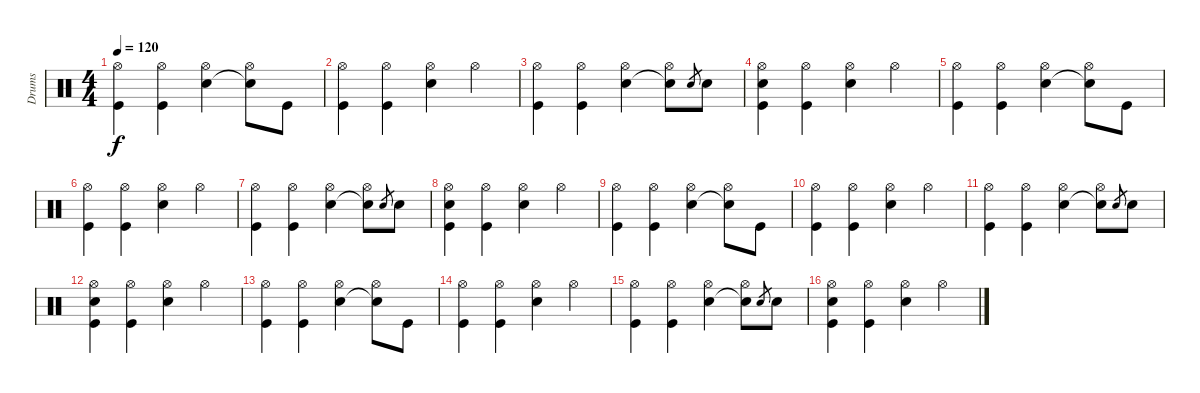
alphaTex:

\track ("Drums" "Drums") {instrument percussion}
\staff {score}
\articulation defaults
\ts (4 4)
\tempo 120
\clef neutral
\ks c
("Hi-Hat (open)" "Kick (hit)").4{dy f} ("Hi-Hat (open)" "Kick (hit)").4 ("Hi-Hat (open)" "Electric Snare (hit)").4 ("Hi-Hat (open)" "Snare (hit)"{t}).8 "Kick (hit)".8 |
("Hi-Hat (open)" "Kick (hit)").4 ("Hi-Hat (open)" "Kick (hit)").4 ("Hi-Hat (open)" "Electric Snare (hit)").4 "Hi-Hat (open)".4 |
("Hi-Hat (open)" "Kick (hit)").4 ("Hi-Hat (open)" "Kick (hit)").4 ("Hi-Hat (open)" "Electric Snare (hit)").4 ("Hi-Hat (open)" "Snare (hit)"{t}).8 "Snare (hit) 2".8{gr} "Snare (hit) 2".8 |
("Hi-Hat (open)" "Kick (hit)" "Snare (hit) 2").4 ("Hi-Hat (open)" "Kick (hit)").4 ("Hi-Hat (open)" "Electric Snare (hit)").4 "Hi-Hat (open)".4 |
("Hi-Hat (open)" "Kick (hit)").4 ("Hi-Hat (open)" "Kick (hit)").4 ("Hi-Hat (open)" "Electric Snare (hit)").4 ("Hi-Hat (open)" "Snare (hit)"{t}).8 "Kick (hit)".8 |
("Hi-Hat (open)" "Kick (hit)").4 ("Hi-Hat (open)" "Kick (hit)").4 ("Hi-Hat (open)" "Electric Snare (hit)").4 "Hi-Hat (open)".4 |
("Hi-Hat (open)" "Kick (hit)").4 ("Hi-Hat (open)" "Kick (hit)").4 ("Hi-Hat (open)" "Electric Snare (hit)").4 ("Hi-Hat (open)" "Snare (hit)"{t}).8 "Snare (hit) 2".8{gr} "Snare (hit) 2".8 |
("Hi-Hat (open)" "Kick (hit)" "Snare (hit) 2").4 ("Hi-Hat (open)" "Kick (hit)").4 ("Hi-Hat (open)" "Electric Snare (hit)").4 "Hi-Hat (open)".4 |
("Hi-Hat (open)" "Kick (hit)").4 ("Hi-Hat (open)" "Kick (hit)").4 ("Hi-Hat (open)" "Electric Snare (hit)").4 ("Hi-Hat (open)" "Snare (hit)"{t}).8 "Kick (hit)".8 |
("Hi-Hat (open)" "Kick (hit)").4 ("Hi-Hat (open)" "Kick (hit)").4 ("Hi-Hat (open)" "Electric Snare (hit)").4 "Hi-Hat (open)".4 |
("Hi-Hat (open)" "Kick (hit)").4 ("Hi-Hat (open)" "Kick (hit)").4 ("Hi-Hat (open)" "Electric Snare (hit)").4 ("Hi-Hat (open)" "Snare (hit)"{t}).8 "Snare (hit) 2".8{gr} "Snare (hit) 2".8 |
("Hi-Hat (open)" "Kick (hit)" "Snare (hit) 2").4 ("Hi-Hat (open)" "Kick (hit)").4 ("Hi-Hat (open)" "Electric Snare (hit)").4 "Hi-Hat (open)".4 |
("Hi-Hat (open)" "Kick (hit)").4 ("Hi-Hat (open)" "Kick (hit)").4 ("Hi-Hat (open)" "Electric Snare (hit)").4 ("Hi-Hat (open)" "Snare (hit)"{t}).8 "Kick (hit)".8 |
("Hi-Hat (open)" "Kick (hit)").4 ("Hi-Hat (open)" "Kick (hit)").4 ("Hi-Hat (open)" "Electric Snare (hit)").4 "Hi-Hat (open)".4 |
("Hi-Hat (open)" "Kick (hit)").4 ("Hi-Hat (open)" "Kick (hit)").4 ("Hi-Hat (open)" "Electric Snare (hit)").4 ("Hi-Hat (open)" "Snare (hit)"{t}).8 "Snare (hit) 2".8{gr} "Snare (hit) 2".8 |
("Hi-Hat (open)" "Kick (hit)" "Snare (hit) 2").4 ("Hi-Hat (open)" "Kick (hit)").4 ("Hi-Hat (open)" "Electric Snare (hit)").4 "Hi-Hat (open)".4
